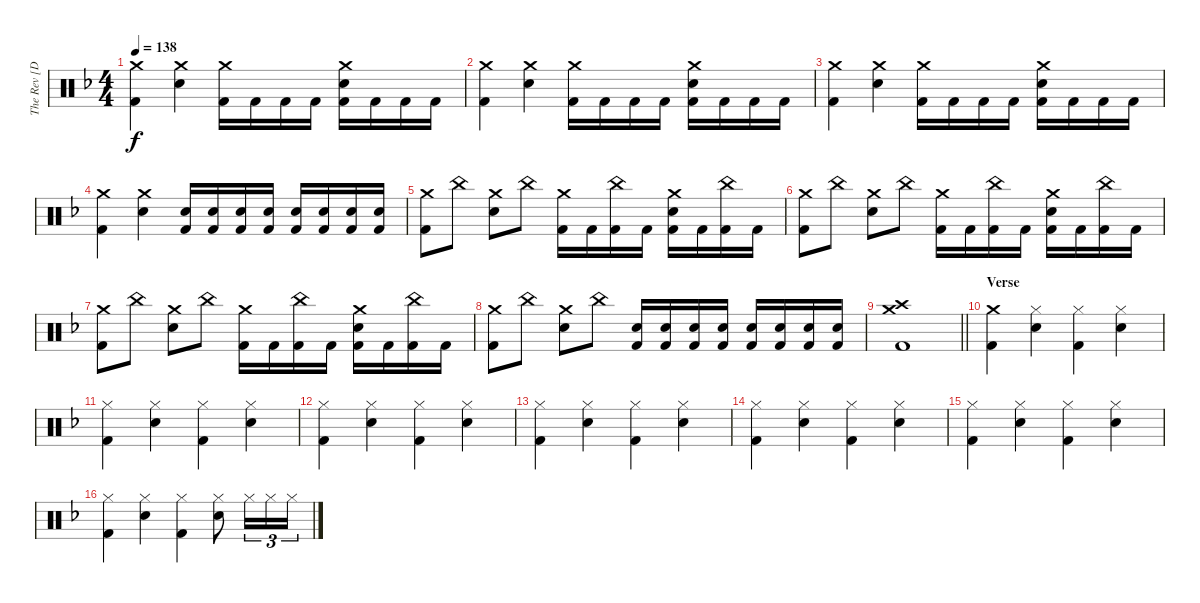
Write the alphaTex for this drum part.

\track ("The Rev [Drum]" "The Rev [D") {instrument percussion}
\staff {score}
\articulation defaults
\ts (4 4)
\tempo 138
\clef neutral
\ks f
("Crash medium (hit)" "Kick (hit) 2").4{dy f} ("Crash medium (hit)" "Electric Snare (hit)").4 ("Crash medium (hit)" "Kick (hit) 2").16 "Kick (hit) 2".16 "Kick (hit) 2".16 "Kick (hit) 2".16 ("Crash medium (hit)" "Electric Snare (hit)" "Kick (hit) 2").16 "Kick (hit) 2".16 "Kick (hit) 2".16 "Kick (hit) 2".16 |
("Crash medium (hit)" "Kick (hit) 2").4 ("Crash medium (hit)" "Electric Snare (hit)").4 ("Crash medium (hit)" "Kick (hit) 2").16 "Kick (hit) 2".16 "Kick (hit) 2".16 "Kick (hit) 2".16 ("Crash medium (hit)" "Electric Snare (hit)" "Kick (hit) 2").16 "Kick (hit) 2".16 "Kick (hit) 2".16 "Kick (hit) 2".16 |
("Crash medium (hit)" "Kick (hit) 2").4 ("Crash medium (hit)" "Electric Snare (hit)").4 ("Crash medium (hit)" "Kick (hit) 2").16 "Kick (hit) 2".16 "Kick (hit) 2".16 "Kick (hit) 2".16 ("Crash medium (hit)" "Electric Snare (hit)" "Kick (hit) 2").16 "Kick (hit) 2".16 "Kick (hit) 2".16 "Kick (hit) 2".16 |
("Crash medium (hit)" "Kick (hit) 2").4 ("Crash medium (hit)" "Electric Snare (hit)").4 ("Electric Snare (hit)" "Kick (hit) 2").16 ("Electric Snare (hit)" "Kick (hit) 2").16 ("Electric Snare (hit)" "Kick (hit) 2").16 ("Electric Snare (hit)" "Kick (hit) 2").16 ("Electric Snare (hit)" "Kick (hit) 2").16 ("Electric Snare (hit)" "Kick (hit) 2").16 ("Electric Snare (hit)" "Kick (hit) 2").16 ("Electric Snare (hit)" "Kick (hit) 2").16 |
("Crash medium (hit)" "Kick (hit) 2").8 "China (hit)".8 ("Crash medium (hit)" "Electric Snare (hit)").8 "China (hit)".8 ("Crash medium (hit)" "Kick (hit) 2").16 "Kick (hit) 2".16 ("China (hit)" "Kick (hit) 2").16 "Kick (hit) 2".16 ("Crash medium (hit)" "Electric Snare (hit)" "Kick (hit) 2").16 "Kick (hit) 2".16 ("China (hit)" "Kick (hit) 2").16 "Kick (hit) 2".16 |
("Crash medium (hit)" "Kick (hit) 2").8 "China (hit)".8 ("Crash medium (hit)" "Electric Snare (hit)").8 "China (hit)".8 ("Crash medium (hit)" "Kick (hit) 2").16 "Kick (hit) 2".16 ("China (hit)" "Kick (hit) 2").16 "Kick (hit) 2".16 ("Crash medium (hit)" "Electric Snare (hit)" "Kick (hit) 2").16 "Kick (hit) 2".16 ("China (hit)" "Kick (hit) 2").16 "Kick (hit) 2".16 |
("Crash medium (hit)" "Kick (hit) 2").8 "China (hit)".8 ("Crash medium (hit)" "Electric Snare (hit)").8 "China (hit)".8 ("Crash medium (hit)" "Kick (hit) 2").16 "Kick (hit) 2".16 ("China (hit)" "Kick (hit) 2").16 "Kick (hit) 2".16 ("Crash medium (hit)" "Electric Snare (hit)" "Kick (hit) 2").16 "Kick (hit) 2".16 ("China (hit)" "Kick (hit) 2").16 "Kick (hit) 2".16 |
("Crash medium (hit)" "Kick (hit) 2").8 "China (hit)".8 ("Crash medium (hit)" "Electric Snare (hit)").8 "China (hit)".8 ("Electric Snare (hit)" "Kick (hit) 2").16 ("Electric Snare (hit)" "Kick (hit) 2").16 ("Electric Snare (hit)" "Kick (hit) 2").16 ("Electric Snare (hit)" "Kick (hit) 2").16 ("Electric Snare (hit)" "Kick (hit) 2").16 ("Electric Snare (hit)" "Kick (hit) 2").16 ("Electric Snare (hit)" "Kick (hit) 2").16 ("Electric Snare (hit)" "Kick (hit) 2").16 |
\barLineRight lightlight
("Crash medium (hit)" "Crash high (hit)" "Kick (hit) 2").1 |
\section ("" "Verse")
("Crash medium (hit)" "Kick (hit) 2").4 ("Hi-Hat (closed)" "Electric Snare (hit)").4 ("Hi-Hat (closed)" "Kick (hit) 2").4 ("Hi-Hat (closed)" "Electric Snare (hit)").4 |
("Hi-Hat (closed)" "Kick (hit) 2").4 ("Hi-Hat (closed)" "Electric Snare (hit)").4 ("Hi-Hat (closed)" "Kick (hit) 2").4 ("Hi-Hat (closed)" "Electric Snare (hit)").4 |
("Hi-Hat (closed)" "Kick (hit) 2").4 ("Hi-Hat (closed)" "Electric Snare (hit)").4 ("Hi-Hat (closed)" "Kick (hit) 2").4 ("Hi-Hat (closed)" "Electric Snare (hit)").4 |
("Hi-Hat (closed)" "Kick (hit) 2").4 ("Hi-Hat (closed)" "Electric Snare (hit)").4 ("Hi-Hat (closed)" "Kick (hit) 2").4 ("Hi-Hat (closed)" "Electric Snare (hit)").4 |
("Hi-Hat (closed)" "Kick (hit) 2").4 ("Hi-Hat (closed)" "Electric Snare (hit)").4 ("Hi-Hat (closed)" "Kick (hit) 2").4 ("Hi-Hat (closed)" "Electric Snare (hit)").4 |
("Hi-Hat (closed)" "Kick (hit) 2").4 ("Hi-Hat (closed)" "Electric Snare (hit)").4 ("Hi-Hat (closed)" "Kick (hit) 2").4 ("Hi-Hat (closed)" "Electric Snare (hit)").4 |
("Hi-Hat (closed)" "Kick (hit) 2").4 ("Hi-Hat (closed)" "Electric Snare (hit)").4 ("Hi-Hat (closed)" "Kick (hit) 2").4 ("Hi-Hat (closed)" "Electric Snare (hit)").8 "Hi-Hat (closed)".16{tu (3 2)} "Hi-Hat (closed)".16{tu (3 2)} "Hi-Hat (closed)".16{tu (3 2)}
